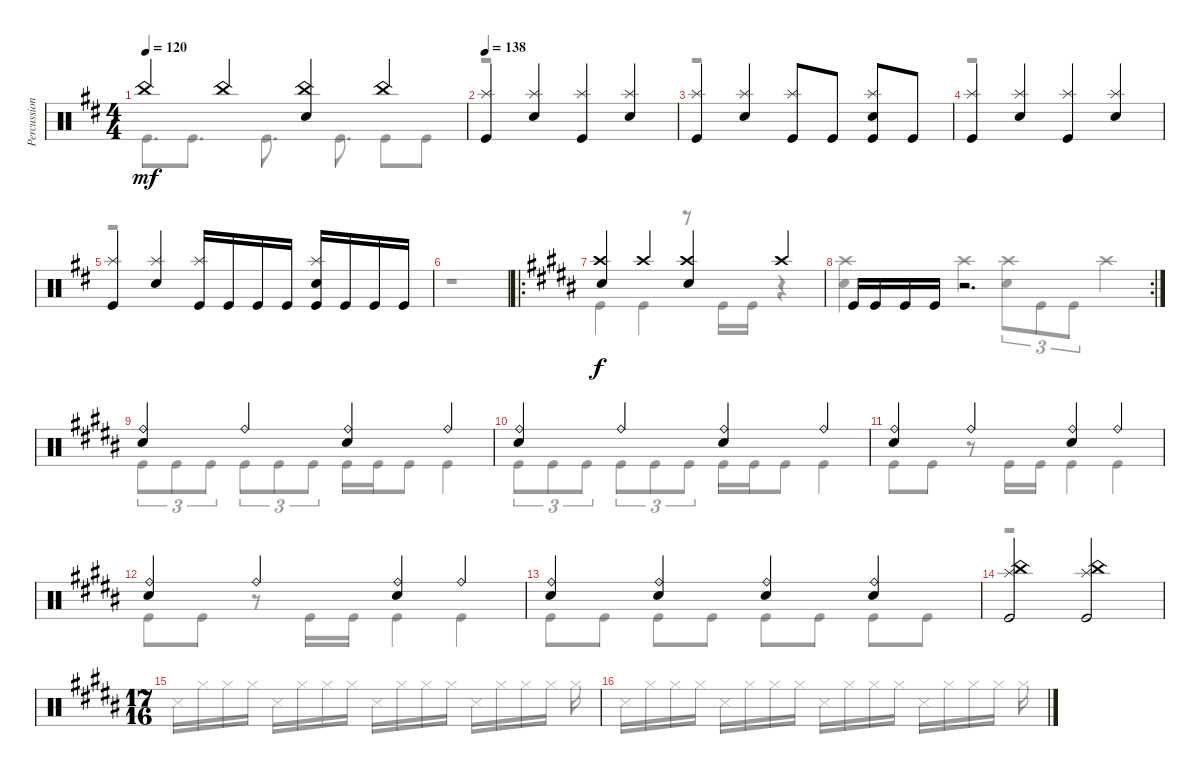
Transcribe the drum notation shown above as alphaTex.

\track ("Percussion" "Percussion") {instrument percussion}
\staff {score}
\articulation defaults
\voice
\ts (4 4)
\tempo 120
\clef neutral
\ks bminor "China (hit)".4{dy mf} "China (hit)".4
("China (hit)" "Snare (hit) 2").4 "China (hit)".4 |
\tempo 138
("Splash (hit)" "Kick (hit)").4 ("Splash (hit)" "Snare (hit) 2").4 ("Splash (hit)" "Kick (hit)").4 ("Splash (hit)" "Snare (hit) 2").4 |
("Splash (hit)" "Kick (hit)").4 ("Splash (hit)" "Snare (hit) 2").4 ("Splash (hit)" "Kick (hit)").8 "Kick (hit)".8 ("Splash (hit)" "Snare (hit) 2" "Kick (hit)").8 "Kick (hit)".8 |
("Splash (hit)" "Kick (hit)").4 ("Splash (hit)" "Snare (hit) 2").4 ("Splash (hit)" "Kick (hit)").4 ("Splash (hit)" "Snare (hit) 2").4 |
("Splash (hit)" "Kick (hit)").4 ("Splash (hit)" "Snare (hit) 2").4 ("Splash (hit)" "Kick (hit)").16 "Kick (hit)".16 "Kick (hit)".16 "Kick (hit)".16 ("Splash (hit)" "Snare (hit) 2" "Kick (hit)").16 "Kick (hit)".16 "Kick (hit)".16 "Kick (hit)".16 |
|
\ro
\ks b
("Crash high (hit)" "Snare (hit) 2").4{dy f} "Crash high (hit)".4 ("Crash high (hit)" "Snare (hit) 2").4 "Crash high (hit)".4 |
\rc 2 "Kick (hit)".16 "Kick (hit)".16 "Kick (hit)".16 "Kick (hit)".16
r.2{d} |
("Ride (bell)" "Snare (hit) 2").4 "Ride (bell)".4 ("Ride (bell)" "Snare (hit) 2").4 "Ride (bell)".4 |
("Ride (bell)" "Snare (hit) 2").4 "Ride (bell)".4 ("Ride (bell)" "Snare (hit) 2").4 "Ride (bell)".4 |
("Ride (bell)" "Snare (hit) 2").4 "Ride (bell)".4 ("Ride (bell)" "Snare (hit) 2").4 "Ride (bell)".4 |
("Ride (bell)" "Snare (hit) 2").4 "Ride (bell)".4 ("Ride (bell)" "Snare (hit) 2").4 "Ride (bell)".4 |
("Ride (bell)" "Snare (hit) 2").4 ("Ride (bell)" "Snare (hit) 2").4 ("Ride (bell)" "Snare (hit) 2").4 ("Ride (bell)" "Snare (hit) 2").4 |
("Splash (hit)" "China (hit)" "Kick (hit)").2 ("Splash (hit)" "China (hit)" "Kick (hit)").2 |
\ts (17 16)
|
\voice
\clef neutral
\ottava regular
\simile none
\ks bminor "Kick (hit)".8{d dy mf} "Kick (hit)".8{d} "Kick (hit)".8{d} "Kick (hit)".8{d} "Kick (hit)".8 "Kick (hit)".8
|
r.1 |
r.1 |
r.1 |
r.1 |
r.1 |
\ks b "Kick (hit)".4{dy f} "Kick (hit)".4
r.8 "Kick (hit)".16 "Kick (hit)".16 r.4 |
("Crash high (hit)" "Snare (hit) 2").4 "Crash high (hit)".4 ("Crash high (hit)" "Snare (hit) 2").8{tu (3 2)} "Kick (hit)".8{tu (3 2)} "Kick (hit)".8{tu (3 2)} "Crash high (hit)".4 |
"Kick (hit)".8{tu (3 2)} "Kick (hit)".8{tu (3 2)} "Kick (hit)".8{tu (3 2)} "Kick (hit)".8{tu (3 2)} "Kick (hit)".8{tu (3 2)} "Kick (hit)".8{tu (3 2)} "Kick (hit)".16 "Kick (hit)".16 "Kick (hit)".8 "Kick (hit)".4 |
"Kick (hit)".8{tu (3 2)} "Kick (hit)".8{tu (3 2)} "Kick (hit)".8{tu (3 2)} "Kick (hit)".8{tu (3 2)} "Kick (hit)".8{tu (3 2)} "Kick (hit)".8{tu (3 2)} "Kick (hit)".16 "Kick (hit)".16 "Kick (hit)".8 "Kick (hit)".4 |
"Kick (hit)".8 "Kick (hit)".8 r.8 "Kick (hit)".16 "Kick (hit)".16 "Kick (hit)".4 "Kick (hit)".4 |
"Kick (hit)".8 "Kick (hit)".8 r.8 "Kick (hit)".16 "Kick (hit)".16 "Kick (hit)".4 "Kick (hit)".4 |
"Kick (hit)".8 "Kick (hit)".8 "Kick (hit)".8 "Kick (hit)".8 "Kick (hit)".8 "Kick (hit)".8 "Kick (hit)".8 "Kick (hit)".8 |
r.1 |
"Snare (side stick) 3".16 "Hi-Hat (closed)".16 "Hi-Hat (closed)".16 "Hi-Hat (closed)".16 "Snare (side stick) 3".16 "Hi-Hat (closed)".16 "Hi-Hat (closed)".16 "Hi-Hat (closed)".16 "Snare (side stick) 3".16 "Hi-Hat (closed)".16 "Hi-Hat (closed)".16 "Hi-Hat (closed)".16 "Snare (side stick) 3".16 "Hi-Hat (closed)".16 "Hi-Hat (closed)".16 "Hi-Hat (closed)".16 "Hi-Hat (closed)".16 |
"Snare (side stick) 3".16 "Hi-Hat (closed)".16 "Hi-Hat (closed)".16 "Hi-Hat (closed)".16 "Snare (side stick) 3".16 "Hi-Hat (closed)".16 "Hi-Hat (closed)".16 "Hi-Hat (closed)".16 "Snare (side stick) 3".16 "Hi-Hat (closed)".16 "Hi-Hat (closed)".16 "Hi-Hat (closed)".16 "Snare (side stick) 3".16 "Hi-Hat (closed)".16 "Hi-Hat (closed)".16 "Hi-Hat (closed)".16 "Hi-Hat (closed)".16
